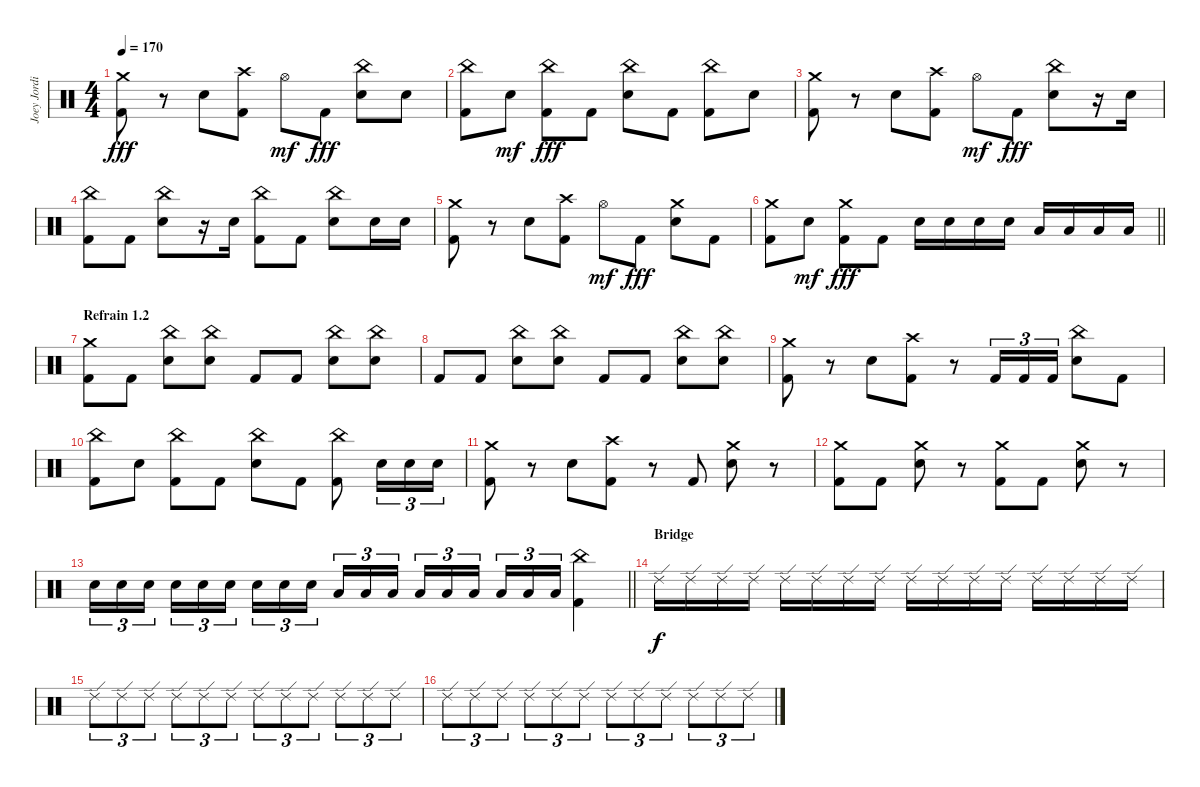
\track ("Joey Jordison" "Joey Jordi") {instrument percussion}
\staff {score}
\articulation defaults
\ts (4 4)
\tempo 170
\clef neutral
\ks c
("Crash medium (hit)" "Kick (hit) 2").8{dy fff} r.8 "Electric Snare (hit)".8 ("Crash high (hit)" "Kick (hit) 2").8 "Hi-Hat (open)".8{dy mf} "Kick (hit) 2".8{dy fff} ("China (hit)" "Electric Snare (hit)").8 "Electric Snare (hit)".8 |
("China (hit)" "Kick (hit) 2").8 "Electric Snare (hit)".8{dy mf} ("China (hit)" "Kick (hit) 2").8{dy fff} "Kick (hit) 2".8 ("China (hit)" "Electric Snare (hit)").8 "Kick (hit) 2".8 ("China (hit)" "Kick (hit) 2").8 "Electric Snare (hit)".8 |
("Crash medium (hit)" "Kick (hit) 2").8 r.8 "Electric Snare (hit)".8 ("Crash high (hit)" "Kick (hit) 2").8 "Hi-Hat (open)".8{dy mf} "Kick (hit) 2".8{dy fff} ("China (hit)" "Electric Snare (hit)").8 r.16 "Electric Snare (hit)".16 |
("China (hit)" "Kick (hit) 2").8 "Kick (hit) 2".8 ("China (hit)" "Electric Snare (hit)").8 r.16 "Electric Snare (hit)".16 ("China (hit)" "Kick (hit) 2").8 "Kick (hit) 2".8 ("China (hit)" "Electric Snare (hit)").8 "Electric Snare (hit)".16 "Electric Snare (hit)".16 |
("Crash medium (hit)" "Kick (hit) 2").8 r.8 "Electric Snare (hit)".8 ("Crash high (hit)" "Kick (hit) 2").8 "Hi-Hat (open)".8{dy mf} "Kick (hit) 2".8{dy fff} ("Crash medium (hit)" "Electric Snare (hit)").8 "Kick (hit) 2".8 |
\barLineRight lightlight
("Crash medium (hit)" "Kick (hit) 2").8 "Electric Snare (hit)".8{dy mf} ("Crash medium (hit)" "Kick (hit) 2").8{dy fff} "Kick (hit) 2".8 "Electric Snare (hit)".16 "Electric Snare (hit)".16 "Electric Snare (hit)".16 "Electric Snare (hit)".16 "Low Tom (hit)".16 "Low Tom (hit)".16 "Low Tom (hit)".16 "Low Tom (hit)".16 |
\section ("" "Refrain 1.2")
("Crash medium (hit)" "Kick (hit) 2").8 "Kick (hit) 2".8 ("China (hit)" "Electric Snare (hit)").8 ("China (hit)" "Electric Snare (hit)").8 "Kick (hit) 2".8 "Kick (hit) 2".8 ("China (hit)" "Electric Snare (hit)").8 ("China (hit)" "Electric Snare (hit)").8 |
"Kick (hit) 2".8 "Kick (hit) 2".8 ("China (hit)" "Electric Snare (hit)").8 ("China (hit)" "Electric Snare (hit)").8 "Kick (hit) 2".8 "Kick (hit) 2".8 ("China (hit)" "Electric Snare (hit)").8 ("China (hit)" "Electric Snare (hit)").8 |
("Crash medium (hit)" "Kick (hit) 2").8 r.8 "Electric Snare (hit)".8 ("Crash high (hit)" "Kick (hit) 2").8 r.8 "Kick (hit) 2".16{tu (3 2)} "Kick (hit) 2".16{tu (3 2)} "Kick (hit) 2".16{tu (3 2)} ("China (hit)" "Electric Snare (hit)").8 "Kick (hit) 2".8 |
("China (hit)" "Kick (hit) 2").8 "Electric Snare (hit)".8 ("China (hit)" "Kick (hit) 2").8 "Kick (hit) 2".8 ("China (hit)" "Electric Snare (hit)").8 "Kick (hit) 2".8 ("China (hit)" "Kick (hit) 2").8 "Electric Snare (hit)".16{tu (3 2)} "Electric Snare (hit)".16{tu (3 2)} "Electric Snare (hit)".16{tu (3 2)} |
("Crash medium (hit)" "Kick (hit) 2").8 r.8 "Electric Snare (hit)".8 ("Crash high (hit)" "Kick (hit) 2").8 r.8 "Kick (hit) 2".8 ("Crash medium (hit)" "Electric Snare (hit)").8 r.8 |
("Crash medium (hit)" "Kick (hit) 2").8 "Kick (hit) 2".8 ("Crash medium (hit)" "Electric Snare (hit)").8 r.8 ("Crash medium (hit)" "Kick (hit) 2").8 "Kick (hit) 2".8 ("Crash medium (hit)" "Electric Snare (hit)").8 r.8 |
\barLineRight lightlight "Electric Snare (hit)".16{tu (3 2)} "Electric Snare (hit)".16{tu (3 2)} "Electric Snare (hit)".16{tu (3 2) beam splitsecondary} "Electric Snare (hit)".16{tu (3 2)} "Electric Snare (hit)".16{tu (3 2)} "Electric Snare (hit)".16{tu (3 2)} "Electric Snare (hit)".16{tu (3 2)} "Electric Snare (hit)".16{tu (3 2)} "Electric Snare (hit)".16{tu (3 2) beam splitsecondary} "Low Tom (hit)".16{tu (3 2)} "Low Tom (hit)".16{tu (3 2)} "Low Tom (hit)".16{tu (3 2)} "Low Tom (hit)".16{tu (3 2)} "Low Tom (hit)".16{tu (3 2)} "Low Tom (hit)".16{tu (3 2) beam splitsecondary} "Low Tom (hit)".16{tu (3 2)} "Low Tom (hit)".16{tu (3 2)} "Low Tom (hit)".16{tu (3 2)}
("China (hit)" "Kick (hit) 2").4 |
\section ("" "Bridge")
"Ride (edge) 2".16{dy f} "Ride (edge) 2".16 "Ride (edge) 2".16 "Ride (edge) 2".16 "Ride (edge) 2".16 "Ride (edge) 2".16 "Ride (edge) 2".16 "Ride (edge) 2".16 "Ride (edge) 2".16 "Ride (edge) 2".16 "Ride (edge) 2".16 "Ride (edge) 2".16 "Ride (edge) 2".16 "Ride (edge) 2".16 "Ride (edge) 2".16 "Ride (edge) 2".16 |
"Ride (edge) 2".8{tu (3 2)} "Ride (edge) 2".8{tu (3 2)} "Ride (edge) 2".8{tu (3 2)} "Ride (edge) 2".8{tu (3 2)} "Ride (edge) 2".8{tu (3 2)} "Ride (edge) 2".8{tu (3 2)} "Ride (edge) 2".8{tu (3 2)} "Ride (edge) 2".8{tu (3 2)} "Ride (edge) 2".8{tu (3 2)} "Ride (edge) 2".8{tu (3 2)} "Ride (edge) 2".8{tu (3 2)} "Ride (edge) 2".8{tu (3 2)} |
"Ride (edge) 2".8{tu (3 2)} "Ride (edge) 2".8{tu (3 2)} "Ride (edge) 2".8{tu (3 2)} "Ride (edge) 2".8{tu (3 2)} "Ride (edge) 2".8{tu (3 2)} "Ride (edge) 2".8{tu (3 2)} "Ride (edge) 2".8{tu (3 2)} "Ride (edge) 2".8{tu (3 2)} "Ride (edge) 2".8{tu (3 2)} "Ride (edge) 2".8{tu (3 2)} "Ride (edge) 2".8{tu (3 2)} "Ride (edge) 2".8{tu (3 2)}
